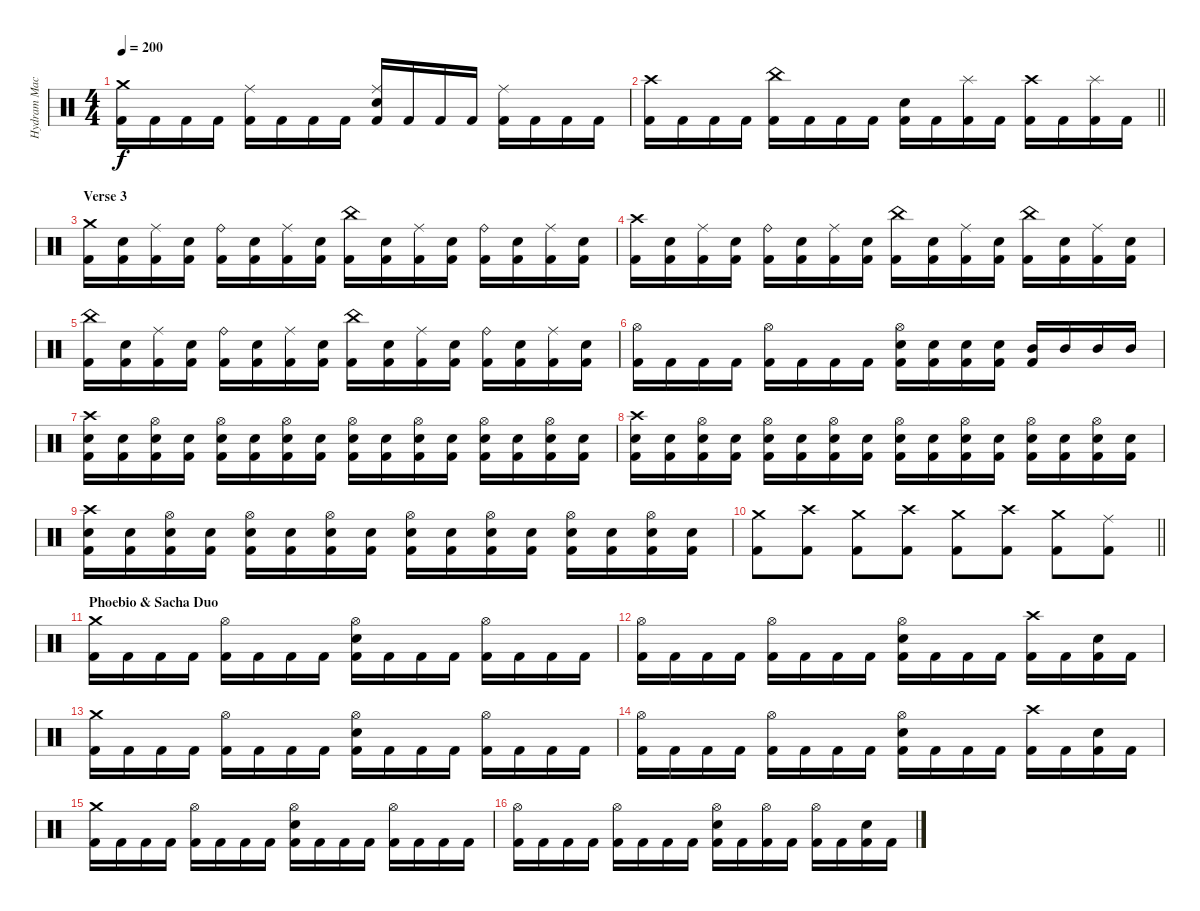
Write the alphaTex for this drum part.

\track ("Hydram Machine" "Hydram Mac") {instrument percussion}
\staff {score}
\articulation defaults
\ts (4 4)
\tempo 200
\clef neutral
\ks c
("Crash medium (hit)" "Kick (hit) 2").16{dy f} "Kick (hit) 2".16 "Kick (hit) 2".16 "Kick (hit) 2".16 ("Ride (middle)" "Kick (hit) 2").16 "Kick (hit) 2".16 "Kick (hit) 2".16 "Kick (hit) 2".16 ("Ride (middle)" "Electric Snare (hit)" "Kick (hit) 2").16 "Kick (hit) 2".16 "Kick (hit) 2".16 "Kick (hit) 2".16 ("Ride (middle)" "Kick (hit) 2").16 "Kick (hit) 2".16 "Kick (hit) 2".16 "Kick (hit) 2".16 |
\barLineRight lightlight
("Crash high (hit)" "Kick (hit) 2").16 "Kick (hit) 2".16 "Kick (hit) 2".16 "Kick (hit) 2".16 ("China (hit)" "Kick (hit) 2").16 "Kick (hit) 2".16 "Kick (hit) 2".16 "Kick (hit) 2".16 ("Electric Snare (hit)" "Kick (hit) 2").16 "Kick (hit) 2".16 ("Splash (hit)" "Kick (hit) 2").16 "Kick (hit) 2".16 ("Crash high (hit)" "Kick (hit) 2").16 "Kick (hit) 2".16 ("Splash (hit)" "Kick (hit) 2").16 "Kick (hit) 2".16 |
\section ("" "Verse 3")
("Crash medium (hit)" "Kick (hit) 2").16 ("Electric Snare (hit)" "Kick (hit) 2").16 ("Ride (middle)" "Kick (hit) 2").16 ("Electric Snare (hit)" "Kick (hit) 2").16 ("Ride (bell)" "Kick (hit) 2").16 ("Electric Snare (hit)" "Kick (hit) 2").16 ("Ride (middle)" "Kick (hit) 2").16 ("Electric Snare (hit)" "Kick (hit) 2").16 ("China (hit)" "Kick (hit) 2").16 ("Electric Snare (hit)" "Kick (hit) 2").16 ("Ride (middle)" "Kick (hit) 2").16 ("Electric Snare (hit)" "Kick (hit) 2").16 ("Ride (bell)" "Kick (hit) 2").16 ("Electric Snare (hit)" "Kick (hit) 2").16 ("Ride (middle)" "Kick (hit) 2").16 ("Electric Snare (hit)" "Kick (hit) 2").16 |
("Crash high (hit)" "Kick (hit) 2").16 ("Electric Snare (hit)" "Kick (hit) 2").16 ("Ride (middle)" "Kick (hit) 2").16 ("Electric Snare (hit)" "Kick (hit) 2").16 ("Ride (bell)" "Kick (hit) 2").16 ("Electric Snare (hit)" "Kick (hit) 2").16 ("Ride (middle)" "Kick (hit) 2").16 ("Electric Snare (hit)" "Kick (hit) 2").16 ("China (hit)" "Kick (hit) 2").16 ("Electric Snare (hit)" "Kick (hit) 2").16 ("Ride (middle)" "Kick (hit) 2").16 ("Electric Snare (hit)" "Kick (hit) 2").16 ("China (hit)" "Kick (hit) 2").16 ("Electric Snare (hit)" "Kick (hit) 2").16 ("Ride (middle)" "Kick (hit) 2").16 ("Electric Snare (hit)" "Kick (hit) 2").16 |
("China (hit)" "Kick (hit) 2").16 ("Electric Snare (hit)" "Kick (hit) 2").16 ("Ride (middle)" "Kick (hit) 2").16 ("Electric Snare (hit)" "Kick (hit) 2").16 ("Ride (bell)" "Kick (hit) 2").16 ("Electric Snare (hit)" "Kick (hit) 2").16 ("Ride (middle)" "Kick (hit) 2").16 ("Electric Snare (hit)" "Kick (hit) 2").16 ("China (hit)" "Kick (hit) 2").16 ("Electric Snare (hit)" "Kick (hit) 2").16 ("Ride (middle)" "Kick (hit) 2").16 ("Electric Snare (hit)" "Kick (hit) 2").16 ("Ride (bell)" "Kick (hit) 2").16 ("Electric Snare (hit)" "Kick (hit) 2").16 ("Ride (middle)" "Kick (hit) 2").16 ("Electric Snare (hit)" "Kick (hit) 2").16 |
("Hi-Hat (open)" "Kick (hit) 2").16 "Kick (hit) 2".16 "Kick (hit) 2".16 "Kick (hit) 2".16 ("Hi-Hat (open)" "Kick (hit) 2").16 "Kick (hit) 2".16 "Kick (hit) 2".16 "Kick (hit) 2".16 ("Hi-Hat (open)" "Electric Snare (hit)" "Kick (hit) 2").16 ("Electric Snare (hit)" "Kick (hit) 2").16 ("Electric Snare (hit)" "Kick (hit) 2").16 ("Electric Snare (hit)" "Kick (hit) 2").16 ("Mid Tom (hit)" "Kick (hit) 2").16 "Mid Tom (hit)".16 "Mid Tom (hit)".16 "Mid Tom (hit)".16 |
("Crash high (hit)" "Electric Snare (hit)" "Kick (hit) 2").16 ("Electric Snare (hit)" "Kick (hit) 2").16 ("Hi-Hat (open)" "Electric Snare (hit)" "Kick (hit) 2").16 ("Electric Snare (hit)" "Kick (hit) 2").16 ("Hi-Hat (open)" "Electric Snare (hit)" "Kick (hit) 2").16 ("Electric Snare (hit)" "Kick (hit) 2").16 ("Hi-Hat (open)" "Electric Snare (hit)" "Kick (hit) 2").16 ("Electric Snare (hit)" "Kick (hit) 2").16 ("Hi-Hat (open)" "Electric Snare (hit)" "Kick (hit) 2").16 ("Electric Snare (hit)" "Kick (hit) 2").16 ("Hi-Hat (open)" "Electric Snare (hit)" "Kick (hit) 2").16 ("Electric Snare (hit)" "Kick (hit) 2").16 ("Hi-Hat (open)" "Electric Snare (hit)" "Kick (hit) 2").16 ("Electric Snare (hit)" "Kick (hit) 2").16 ("Hi-Hat (open)" "Electric Snare (hit)" "Kick (hit) 2").16 ("Electric Snare (hit)" "Kick (hit) 2").16 |
("Crash high (hit)" "Electric Snare (hit)" "Kick (hit) 2").16 ("Electric Snare (hit)" "Kick (hit) 2").16 ("Hi-Hat (open)" "Electric Snare (hit)" "Kick (hit) 2").16 ("Electric Snare (hit)" "Kick (hit) 2").16 ("Hi-Hat (open)" "Electric Snare (hit)" "Kick (hit) 2").16 ("Electric Snare (hit)" "Kick (hit) 2").16 ("Hi-Hat (open)" "Electric Snare (hit)" "Kick (hit) 2").16 ("Electric Snare (hit)" "Kick (hit) 2").16 ("Hi-Hat (open)" "Electric Snare (hit)" "Kick (hit) 2").16 ("Electric Snare (hit)" "Kick (hit) 2").16 ("Hi-Hat (open)" "Electric Snare (hit)" "Kick (hit) 2").16 ("Electric Snare (hit)" "Kick (hit) 2").16 ("Hi-Hat (open)" "Electric Snare (hit)" "Kick (hit) 2").16 ("Electric Snare (hit)" "Kick (hit) 2").16 ("Hi-Hat (open)" "Electric Snare (hit)" "Kick (hit) 2").16 ("Electric Snare (hit)" "Kick (hit) 2").16 |
("Crash high (hit)" "Electric Snare (hit)" "Kick (hit) 2").16 ("Electric Snare (hit)" "Kick (hit) 2").16 ("Hi-Hat (open)" "Electric Snare (hit)" "Kick (hit) 2").16 ("Electric Snare (hit)" "Kick (hit) 2").16 ("Hi-Hat (open)" "Electric Snare (hit)" "Kick (hit) 2").16 ("Electric Snare (hit)" "Kick (hit) 2").16 ("Hi-Hat (open)" "Electric Snare (hit)" "Kick (hit) 2").16 ("Electric Snare (hit)" "Kick (hit) 2").16 ("Hi-Hat (open)" "Electric Snare (hit)" "Kick (hit) 2").16 ("Electric Snare (hit)" "Kick (hit) 2").16 ("Hi-Hat (open)" "Electric Snare (hit)" "Kick (hit) 2").16 ("Electric Snare (hit)" "Kick (hit) 2").16 ("Hi-Hat (open)" "Electric Snare (hit)" "Kick (hit) 2").16 ("Electric Snare (hit)" "Kick (hit) 2").16 ("Hi-Hat (open)" "Electric Snare (hit)" "Kick (hit) 2").16 ("Electric Snare (hit)" "Kick (hit) 2").16 |
\barLineRight lightlight
("Crash medium (hit)" "Kick (hit) 2").8 ("Crash high (hit)" "Kick (hit) 2").8 ("Crash medium (hit)" "Kick (hit) 2").8 ("Crash high (hit)" "Kick (hit) 2").8 ("Crash medium (hit)" "Kick (hit) 2").8 ("Crash high (hit)" "Kick (hit) 2").8 ("Crash medium (hit)" "Kick (hit) 2").8 ("Ride (middle)" "Kick (hit) 2").8 |
\section ("" "Phoebio & Sacha Duo")
("Crash medium (hit)" "Kick (hit) 2").16 "Kick (hit) 2".16 "Kick (hit) 2".16 "Kick (hit) 2".16 ("Hi-Hat (open)" "Kick (hit) 2").16 "Kick (hit) 2".16 "Kick (hit) 2".16 "Kick (hit) 2".16 ("Hi-Hat (open)" "Electric Snare (hit)" "Kick (hit) 2").16 "Kick (hit) 2".16 "Kick (hit) 2".16 "Kick (hit) 2".16 ("Hi-Hat (open)" "Kick (hit) 2").16 "Kick (hit) 2".16 "Kick (hit) 2".16 "Kick (hit) 2".16 |
("Hi-Hat (open)" "Kick (hit) 2").16 "Kick (hit) 2".16 "Kick (hit) 2".16 "Kick (hit) 2".16 ("Hi-Hat (open)" "Kick (hit) 2").16 "Kick (hit) 2".16 "Kick (hit) 2".16 "Kick (hit) 2".16 ("Hi-Hat (open)" "Electric Snare (hit)" "Kick (hit) 2").16 "Kick (hit) 2".16 "Kick (hit) 2".16 "Kick (hit) 2".16 ("Crash high (hit)" "Kick (hit) 2").16 "Kick (hit) 2".16 ("Electric Snare (hit)" "Kick (hit) 2").16 "Kick (hit) 2".16 |
("Crash medium (hit)" "Kick (hit) 2").16 "Kick (hit) 2".16 "Kick (hit) 2".16 "Kick (hit) 2".16 ("Hi-Hat (open)" "Kick (hit) 2").16 "Kick (hit) 2".16 "Kick (hit) 2".16 "Kick (hit) 2".16 ("Hi-Hat (open)" "Electric Snare (hit)" "Kick (hit) 2").16 "Kick (hit) 2".16 "Kick (hit) 2".16 "Kick (hit) 2".16 ("Hi-Hat (open)" "Kick (hit) 2").16 "Kick (hit) 2".16 "Kick (hit) 2".16 "Kick (hit) 2".16 |
("Hi-Hat (open)" "Kick (hit) 2").16 "Kick (hit) 2".16 "Kick (hit) 2".16 "Kick (hit) 2".16 ("Hi-Hat (open)" "Kick (hit) 2").16 "Kick (hit) 2".16 "Kick (hit) 2".16 "Kick (hit) 2".16 ("Hi-Hat (open)" "Electric Snare (hit)" "Kick (hit) 2").16 "Kick (hit) 2".16 "Kick (hit) 2".16 "Kick (hit) 2".16 ("Crash high (hit)" "Kick (hit) 2").16 "Kick (hit) 2".16 ("Electric Snare (hit)" "Kick (hit) 2").16 "Kick (hit) 2".16 |
("Crash medium (hit)" "Kick (hit) 2").16 "Kick (hit) 2".16 "Kick (hit) 2".16 "Kick (hit) 2".16 ("Hi-Hat (open)" "Kick (hit) 2").16 "Kick (hit) 2".16 "Kick (hit) 2".16 "Kick (hit) 2".16 ("Hi-Hat (open)" "Electric Snare (hit)" "Kick (hit) 2").16 "Kick (hit) 2".16 "Kick (hit) 2".16 "Kick (hit) 2".16 ("Hi-Hat (open)" "Kick (hit) 2").16 "Kick (hit) 2".16 "Kick (hit) 2".16 "Kick (hit) 2".16 |
("Hi-Hat (open)" "Kick (hit) 2").16 "Kick (hit) 2".16 "Kick (hit) 2".16 "Kick (hit) 2".16 ("Hi-Hat (open)" "Kick (hit) 2").16 "Kick (hit) 2".16 "Kick (hit) 2".16 "Kick (hit) 2".16 ("Hi-Hat (open)" "Electric Snare (hit)" "Kick (hit) 2").16 "Kick (hit) 2".16 ("Hi-Hat (open)" "Kick (hit) 2").16 "Kick (hit) 2".16 ("Hi-Hat (open)" "Kick (hit) 2").16 "Kick (hit) 2".16 ("Electric Snare (hit)" "Kick (hit) 2").16 "Kick (hit) 2".16
